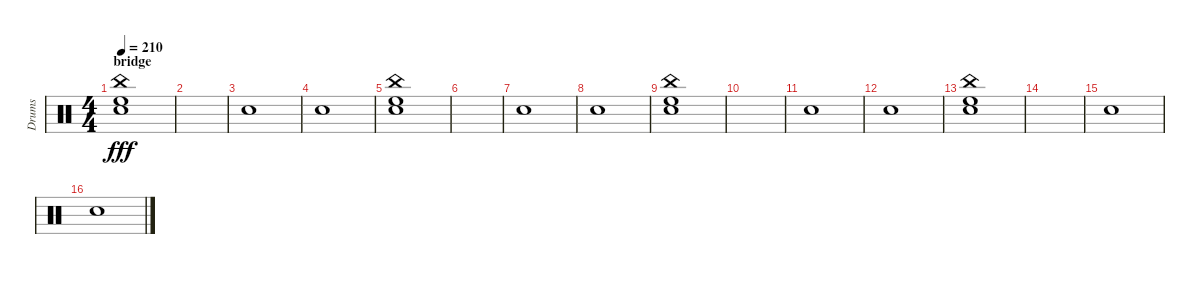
\track ("Drums" "Drums") {instrument percussion}
\staff {score}
\articulation defaults
\ts (4 4)
\section ("" "bridge")
\tempo 210
\clef neutral
\ks c
("Electric Snare (hit)" "High Floor Tom (hit)" "China (hit)").1{dy fff} |
|
"Electric Snare (hit)".1 |
"Electric Snare (hit)".1 |
("Electric Snare (hit)" "High Floor Tom (hit)" "China (hit)").1 |
|
"Electric Snare (hit)".1 |
"Electric Snare (hit)".1 |
("Electric Snare (hit)" "High Floor Tom (hit)" "China (hit)").1 |
|
"Electric Snare (hit)".1 |
"Electric Snare (hit)".1 |
("Electric Snare (hit)" "High Floor Tom (hit)" "China (hit)").1 |
|
"Electric Snare (hit)".1 |
"Electric Snare (hit)".1
